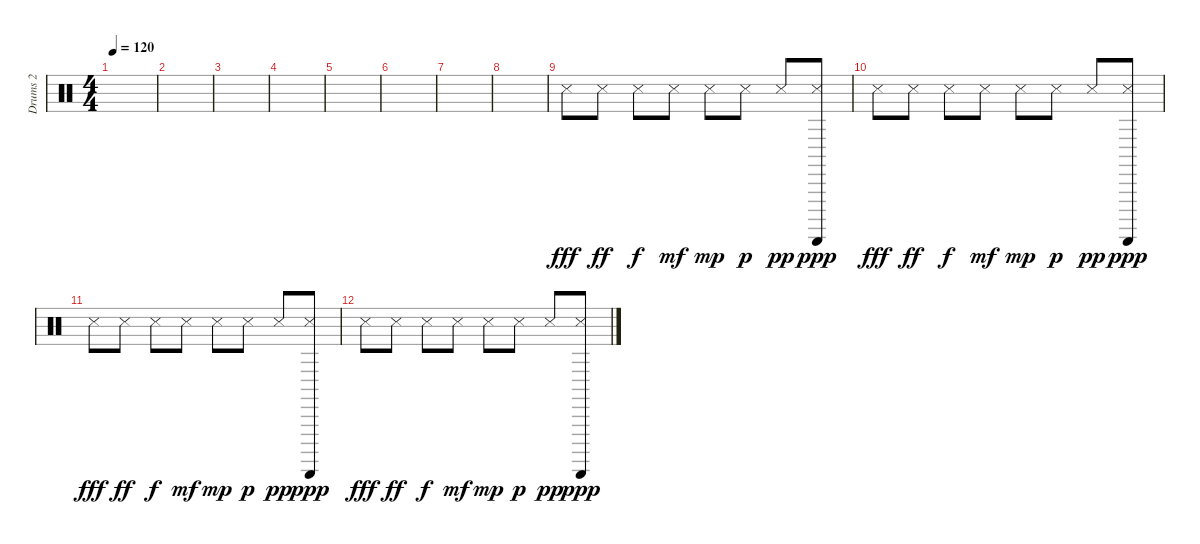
\track ("Drums 2" "Drums 2") {instrument percussion}
\staff {score}
\articulation defaults
\ts (4 4)
\tempo 120
\clef neutral
\ks c
|
|
|
|
|
|
|
|
"Snare (side stick) 3".8{dy fff} "Snare (side stick) 3".8{dy ff} "Snare (side stick) 3".8{dy f} "Snare (side stick) 3".8{dy mf} "Snare (side stick) 3".8{dy mp} "Snare (side stick) 3".8{dy p} "Snare (side stick) 3".8{dy pp} ("Guiro (scrap-return)" "Snare (side stick) 3").8{dy ppp} |
"Snare (side stick) 3".8{dy fff} "Snare (side stick) 3".8{dy ff} "Snare (side stick) 3".8{dy f} "Snare (side stick) 3".8{dy mf} "Snare (side stick) 3".8{dy mp} "Snare (side stick) 3".8{dy p} "Snare (side stick) 3".8{dy pp} ("Guiro (scrap-return)" "Snare (side stick) 3").8{dy ppp} |
"Snare (side stick) 3".8{dy fff} "Snare (side stick) 3".8{dy ff} "Snare (side stick) 3".8{dy f} "Snare (side stick) 3".8{dy mf} "Snare (side stick) 3".8{dy mp} "Snare (side stick) 3".8{dy p} "Snare (side stick) 3".8{dy pp} ("Guiro (scrap-return)" "Snare (side stick) 3").8{dy ppp} |
"Snare (side stick) 3".8{dy fff} "Snare (side stick) 3".8{dy ff} "Snare (side stick) 3".8{dy f} "Snare (side stick) 3".8{dy mf} "Snare (side stick) 3".8{dy mp} "Snare (side stick) 3".8{dy p} "Snare (side stick) 3".8{dy pp} ("Guiro (scrap-return)" "Snare (side stick) 3").8{dy ppp}
